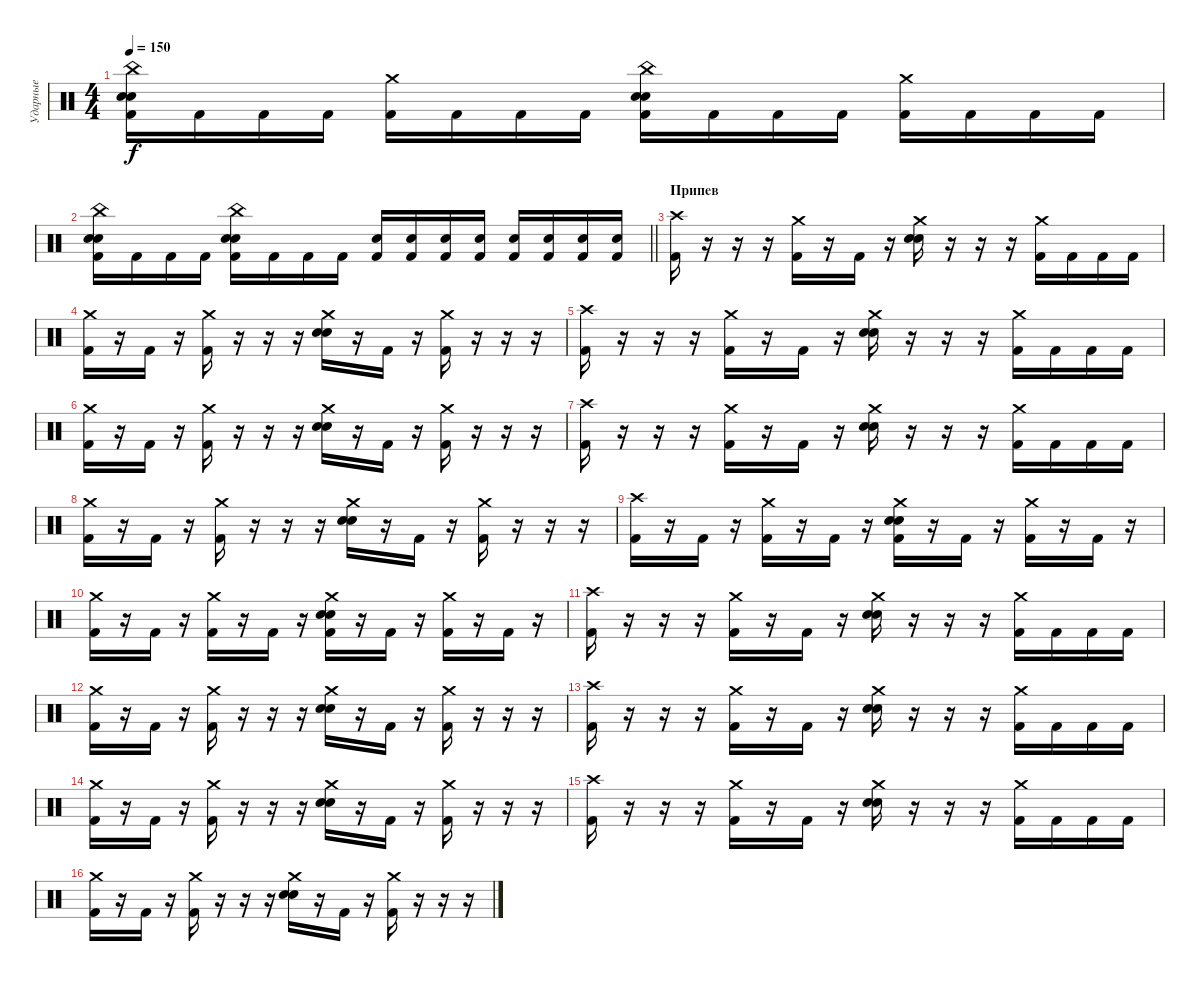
\track ("Ударные" "Ударные") {solo instrument percussion}
\staff {score}
\articulation defaults
\ts (4 4)
\section ("" "")
\tempo 150
\clef neutral
\ks c
("China (hit)" "Electric Snare (hit)" "Snare (hit) 2" "Kick (hit) 2").16{dy f} "Kick (hit) 2".16 "Kick (hit) 2".16 "Kick (hit) 2".16 ("Crash medium (hit)" "Kick (hit) 2").16 "Kick (hit) 2".16 "Kick (hit) 2".16 "Kick (hit) 2".16 ("China (hit)" "Electric Snare (hit)" "Snare (hit) 2" "Kick (hit) 2").16 "Kick (hit) 2".16 "Kick (hit) 2".16 "Kick (hit) 2".16 ("Crash medium (hit)" "Kick (hit) 2").16 "Kick (hit) 2".16 "Kick (hit) 2".16 "Kick (hit) 2".16 |
\barLineRight lightlight
("China (hit)" "Electric Snare (hit)" "Snare (hit) 2" "Kick (hit) 2").16 "Kick (hit) 2".16 "Kick (hit) 2".16 "Kick (hit) 2".16 ("China (hit)" "Electric Snare (hit)" "Snare (hit) 2" "Kick (hit) 2").16 "Kick (hit) 2".16 "Kick (hit) 2".16 "Kick (hit) 2".16 ("Snare (hit) 2" "Kick (hit) 2").16 ("Snare (hit) 2" "Kick (hit) 2").16 ("Snare (hit) 2" "Kick (hit) 2").16 ("Snare (hit) 2" "Kick (hit) 2").16 ("Snare (hit) 2" "Kick (hit) 2").16 ("Snare (hit) 2" "Kick (hit) 2").16 ("Snare (hit) 2" "Kick (hit) 2").16 ("Snare (hit) 2" "Kick (hit) 2").16 |
\section ("" "Припев")
("Crash high (hit)" "Kick (hit) 2").16 r.16 r.16 r.16 ("Crash medium (hit)" "Kick (hit) 2").16 r.16 "Kick (hit) 2".16 r.16 ("Crash medium (hit)" "Electric Snare (hit)" "Snare (hit) 2").16 r.16 r.16 r.16 ("Crash medium (hit)" "Kick (hit) 2").16 "Kick (hit) 2".16 "Kick (hit) 2".16 "Kick (hit) 2".16 |
("Crash medium (hit)" "Kick (hit) 2").16 r.16 "Kick (hit) 2".16 r.16 ("Crash medium (hit)" "Kick (hit) 2").16 r.16 r.16 r.16 ("Crash medium (hit)" "Electric Snare (hit)" "Snare (hit) 2").16 r.16 "Kick (hit) 2".16 r.16 ("Crash medium (hit)" "Kick (hit) 2").16 r.16 r.16 r.16 |
("Crash high (hit)" "Kick (hit) 2").16 r.16 r.16 r.16 ("Crash medium (hit)" "Kick (hit) 2").16 r.16 "Kick (hit) 2".16 r.16 ("Crash medium (hit)" "Electric Snare (hit)" "Snare (hit) 2").16 r.16 r.16 r.16 ("Crash medium (hit)" "Kick (hit) 2").16 "Kick (hit) 2".16 "Kick (hit) 2".16 "Kick (hit) 2".16 |
("Crash medium (hit)" "Kick (hit) 2").16 r.16 "Kick (hit) 2".16 r.16 ("Crash medium (hit)" "Kick (hit) 2").16 r.16 r.16 r.16 ("Crash medium (hit)" "Electric Snare (hit)" "Snare (hit) 2").16 r.16 "Kick (hit) 2".16 r.16 ("Crash medium (hit)" "Kick (hit) 2").16 r.16 r.16 r.16 |
("Crash high (hit)" "Kick (hit) 2").16 r.16 r.16 r.16 ("Crash medium (hit)" "Kick (hit) 2").16 r.16 "Kick (hit) 2".16 r.16 ("Crash medium (hit)" "Electric Snare (hit)" "Snare (hit) 2").16 r.16 r.16 r.16 ("Crash medium (hit)" "Kick (hit) 2").16 "Kick (hit) 2".16 "Kick (hit) 2".16 "Kick (hit) 2".16 |
("Crash medium (hit)" "Kick (hit) 2").16 r.16 "Kick (hit) 2".16 r.16 ("Crash medium (hit)" "Kick (hit) 2").16 r.16 r.16 r.16 ("Crash medium (hit)" "Electric Snare (hit)" "Snare (hit) 2").16 r.16 "Kick (hit) 2".16 r.16 ("Crash medium (hit)" "Kick (hit) 2").16 r.16 r.16 r.16 |
("Crash high (hit)" "Kick (hit) 2").16 r.16 "Kick (hit) 2".16 r.16 ("Crash medium (hit)" "Kick (hit) 2").16 r.16 "Kick (hit) 2".16 r.16 ("Crash medium (hit)" "Electric Snare (hit)" "Snare (hit) 2" "Kick (hit) 2").16 r.16 "Kick (hit) 2".16 r.16 ("Crash medium (hit)" "Kick (hit) 2").16 r.16 "Kick (hit) 2".16 r.16 |
("Crash medium (hit)" "Kick (hit) 2").16 r.16 "Kick (hit) 2".16 r.16 ("Crash medium (hit)" "Kick (hit) 2").16 r.16 "Kick (hit) 2".16 r.16 ("Crash medium (hit)" "Electric Snare (hit)" "Snare (hit) 2" "Kick (hit) 2").16 r.16 "Kick (hit) 2".16 r.16 ("Crash medium (hit)" "Kick (hit) 2").16 r.16 "Kick (hit) 2".16 r.16 |
("Crash high (hit)" "Kick (hit) 2").16 r.16 r.16 r.16 ("Crash medium (hit)" "Kick (hit) 2").16 r.16 "Kick (hit) 2".16 r.16 ("Crash medium (hit)" "Electric Snare (hit)" "Snare (hit) 2").16 r.16 r.16 r.16 ("Crash medium (hit)" "Kick (hit) 2").16 "Kick (hit) 2".16 "Kick (hit) 2".16 "Kick (hit) 2".16 |
("Crash medium (hit)" "Kick (hit) 2").16 r.16 "Kick (hit) 2".16 r.16 ("Crash medium (hit)" "Kick (hit) 2").16 r.16 r.16 r.16 ("Crash medium (hit)" "Electric Snare (hit)" "Snare (hit) 2").16 r.16 "Kick (hit) 2".16 r.16 ("Crash medium (hit)" "Kick (hit) 2").16 r.16 r.16 r.16 |
("Crash high (hit)" "Kick (hit) 2").16 r.16 r.16 r.16 ("Crash medium (hit)" "Kick (hit) 2").16 r.16 "Kick (hit) 2".16 r.16 ("Crash medium (hit)" "Electric Snare (hit)" "Snare (hit) 2").16 r.16 r.16 r.16 ("Crash medium (hit)" "Kick (hit) 2").16 "Kick (hit) 2".16 "Kick (hit) 2".16 "Kick (hit) 2".16 |
("Crash medium (hit)" "Kick (hit) 2").16 r.16 "Kick (hit) 2".16 r.16 ("Crash medium (hit)" "Kick (hit) 2").16 r.16 r.16 r.16 ("Crash medium (hit)" "Electric Snare (hit)" "Snare (hit) 2").16 r.16 "Kick (hit) 2".16 r.16 ("Crash medium (hit)" "Kick (hit) 2").16 r.16 r.16 r.16 |
("Crash high (hit)" "Kick (hit) 2").16 r.16 r.16 r.16 ("Crash medium (hit)" "Kick (hit) 2").16 r.16 "Kick (hit) 2".16 r.16 ("Crash medium (hit)" "Electric Snare (hit)" "Snare (hit) 2").16 r.16 r.16 r.16 ("Crash medium (hit)" "Kick (hit) 2").16 "Kick (hit) 2".16 "Kick (hit) 2".16 "Kick (hit) 2".16 |
("Crash medium (hit)" "Kick (hit) 2").16 r.16 "Kick (hit) 2".16 r.16 ("Crash medium (hit)" "Kick (hit) 2").16 r.16 r.16 r.16 ("Crash medium (hit)" "Electric Snare (hit)" "Snare (hit) 2").16 r.16 "Kick (hit) 2".16 r.16 ("Crash medium (hit)" "Kick (hit) 2").16 r.16 r.16 r.16
